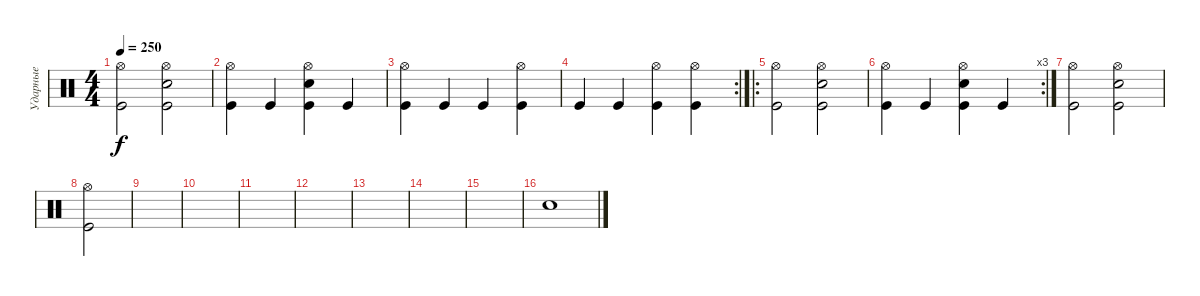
\track ("Ударные" "Ударные") {instrument percussion}
\staff {score}
\articulation defaults
\ts (4 4)
\tempo 250
\clef neutral
\ks c
("Hi-Hat (open)" "Kick (hit)").2{dy f} ("Hi-Hat (open)" "Snare (hit) 2" "Kick (hit)").2 |
("Hi-Hat (open)" "Kick (hit)").4 "Kick (hit)".4 ("Hi-Hat (open)" "Snare (hit) 2" "Kick (hit)").4 "Kick (hit)".4 |
("Kick (hit)" "Hi-Hat (open)").4 "Kick (hit)".4 "Kick (hit)".4 ("Hi-Hat (open)" "Kick (hit)").4 |
\rc 2 "Kick (hit)".4 "Kick (hit)".4
("Hi-Hat (open)" "Kick (hit)").4 ("Hi-Hat (open)" "Kick (hit)").4 |
\ro
("Hi-Hat (open)" "Kick (hit)").2 ("Hi-Hat (open)" "Snare (hit) 2" "Kick (hit)").2 |
\rc 3
("Hi-Hat (open)" "Kick (hit)").4 "Kick (hit)".4 ("Hi-Hat (open)" "Snare (hit) 2" "Kick (hit)").4 "Kick (hit)".4 |
("Hi-Hat (open)" "Kick (hit)").2 ("Hi-Hat (open)" "Kick (hit)" "Snare (hit) 2").2 |
("Hi-Hat (open)" "Kick (hit)").2 |
|
|
|
|
|
|
|
"Snare (hit) 2".1
